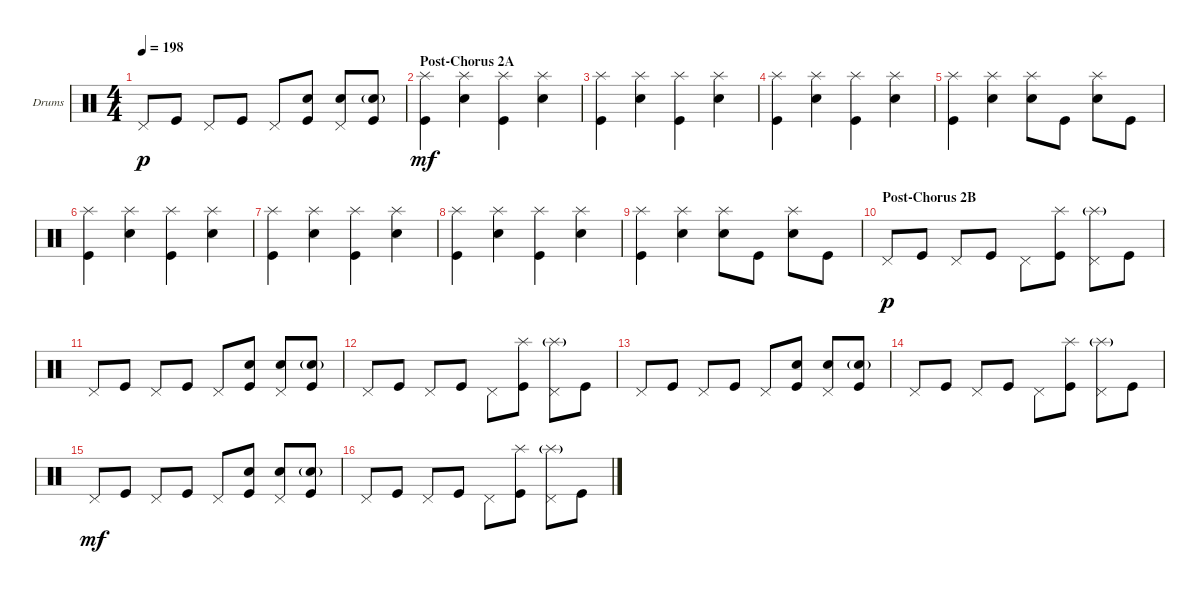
\bracketExtendMode groupsimilarinstruments
\firstSystemTrackNameOrientation horizontal
\otherSystemsTrackNameOrientation horizontal
\track ("Drumkit" "Drums") {instrument percussion}
\staff {score}
\articulation defaults
\ts (4 4)
\tempo 198
\clef neutral
\ks c "Pedal Hi-Hat (hit)".8{dy p} "Kick (hit)".8 "Pedal Hi-Hat (hit)".8 "Kick (hit)".8 "Pedal Hi-Hat (hit)".8
("Kick (hit)" "Snare (hit) 2").8 ("Pedal Hi-Hat (hit)" "Snare (hit) 2").8 ("Kick (hit)" "Snare (hit) 2"{g}).8 |
\section ("" "Post-Chorus 2A")
("Splash (hit)" "Kick (hit)").4{dy mf} ("Splash (hit)" "Snare (hit) 2").4 ("Splash (hit)" "Kick (hit)").4 ("Splash (hit)" "Snare (hit) 2").4 |
("Splash (hit)" "Kick (hit)").4 ("Splash (hit)" "Snare (hit) 2").4 ("Splash (hit)" "Kick (hit)").4 ("Splash (hit)" "Snare (hit) 2").4 |
("Splash (hit)" "Kick (hit)").4 ("Splash (hit)" "Snare (hit) 2").4 ("Splash (hit)" "Kick (hit)").4 ("Splash (hit)" "Snare (hit) 2").4 |
("Splash (hit)" "Kick (hit)").4 ("Splash (hit)" "Snare (hit) 2").4 ("Splash (hit)" "Snare (hit) 2").8 "Kick (hit)".8 ("Snare (hit) 2" "Splash (hit)").8 "Kick (hit)".8 |
("Splash (hit)" "Kick (hit)").4 ("Splash (hit)" "Snare (hit) 2").4 ("Splash (hit)" "Kick (hit)").4 ("Splash (hit)" "Snare (hit) 2").4 |
("Splash (hit)" "Kick (hit)").4 ("Splash (hit)" "Snare (hit) 2").4 ("Splash (hit)" "Kick (hit)").4 ("Splash (hit)" "Snare (hit) 2").4 |
("Splash (hit)" "Kick (hit)").4 ("Splash (hit)" "Snare (hit) 2").4 ("Splash (hit)" "Kick (hit)").4 ("Splash (hit)" "Snare (hit) 2").4 |
("Splash (hit)" "Kick (hit)").4 ("Splash (hit)" "Snare (hit) 2").4 ("Splash (hit)" "Snare (hit) 2").8 "Kick (hit)".8 ("Snare (hit) 2" "Splash (hit)").8 "Kick (hit)".8 |
\section ("" "Post-Chorus 2B")
"Pedal Hi-Hat (hit)".8{dy p} "Kick (hit)".8 "Pedal Hi-Hat (hit)".8 "Kick (hit)".8 "Pedal Hi-Hat (hit)".8 ("Kick (hit)" "Splash (hit)").8 ("Pedal Hi-Hat (hit)" "Splash (hit)"{g}).8 "Kick (hit)".8 |
"Pedal Hi-Hat (hit)".8 "Kick (hit)".8 "Pedal Hi-Hat (hit)".8 "Kick (hit)".8 "Pedal Hi-Hat (hit)".8 ("Kick (hit)" "Snare (hit) 2").8 ("Pedal Hi-Hat (hit)" "Snare (hit) 2").8 ("Kick (hit)" "Snare (hit) 2"{g}).8 |
"Pedal Hi-Hat (hit)".8 "Kick (hit)".8 "Pedal Hi-Hat (hit)".8 "Kick (hit)".8 "Pedal Hi-Hat (hit)".8 ("Kick (hit)" "Splash (hit)").8 ("Pedal Hi-Hat (hit)" "Splash (hit)"{g}).8 "Kick (hit)".8 |
"Pedal Hi-Hat (hit)".8 "Kick (hit)".8 "Pedal Hi-Hat (hit)".8 "Kick (hit)".8 "Pedal Hi-Hat (hit)".8 ("Kick (hit)" "Snare (hit) 2").8 ("Pedal Hi-Hat (hit)" "Snare (hit) 2").8 ("Kick (hit)" "Snare (hit) 2"{g}).8 |
"Pedal Hi-Hat (hit)".8 "Kick (hit)".8 "Pedal Hi-Hat (hit)".8 "Kick (hit)".8 "Pedal Hi-Hat (hit)".8 ("Kick (hit)" "Splash (hit)").8 ("Pedal Hi-Hat (hit)" "Splash (hit)"{g}).8 "Kick (hit)".8 |
"Pedal Hi-Hat (hit)".8{dy mf} "Kick (hit)".8 "Pedal Hi-Hat (hit)".8 "Kick (hit)".8 "Pedal Hi-Hat (hit)".8 ("Kick (hit)" "Snare (hit) 2").8 ("Pedal Hi-Hat (hit)" "Snare (hit) 2").8 ("Kick (hit)" "Snare (hit) 2"{g}).8 |
"Pedal Hi-Hat (hit)".8 "Kick (hit)".8 "Pedal Hi-Hat (hit)".8 "Kick (hit)".8 "Pedal Hi-Hat (hit)".8 ("Kick (hit)" "Splash (hit)").8 ("Pedal Hi-Hat (hit)" "Splash (hit)"{g}).8 "Kick (hit)".8
